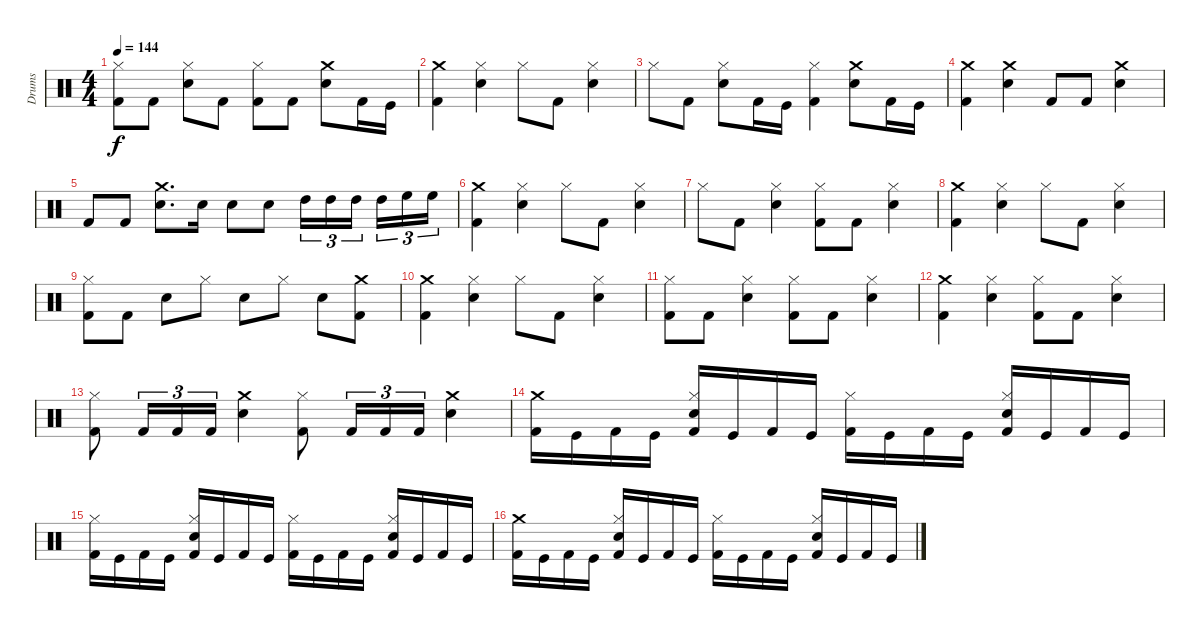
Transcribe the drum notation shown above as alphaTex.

\track ("Drums" "Drums") {instrument percussion}
\staff {score}
\articulation defaults
\ts (4 4)
\tempo 144
\clef neutral
\ks c
("Kick (hit) 2" "Hi-Hat (closed)").8{dy f} "Kick (hit) 2".8 ("Snare (hit) 2" "Hi-Hat (closed)").8 "Kick (hit) 2".8 ("Kick (hit) 2" "Hi-Hat (closed)").8 "Kick (hit) 2".8 ("Crash medium (hit)" "Snare (hit) 2").8 "Kick (hit) 2".16 "Kick (hit)".16 |
("Kick (hit) 2" "Crash medium (hit)").4 ("Snare (hit) 2" "Hi-Hat (closed)").4 "Hi-Hat (closed)".8 "Kick (hit) 2".8 ("Snare (hit) 2" "Hi-Hat (closed)").4 |
"Hi-Hat (closed)".8 "Kick (hit) 2".8 ("Snare (hit) 2" "Hi-Hat (closed)").8 "Kick (hit) 2".16 "Kick (hit)".16 ("Kick (hit) 2" "Hi-Hat (closed)").4 ("Crash medium (hit)" "Snare (hit) 2").8 "Kick (hit) 2".16 "Kick (hit)".16 |
("Kick (hit) 2" "Crash medium (hit)").4 ("Snare (hit) 2" "Crash medium (hit)").4 "Kick (hit) 2".8 "Kick (hit) 2".8 ("Crash medium (hit)" "Snare (hit) 2").4 |
"Kick (hit) 2".8 "Kick (hit) 2".8 ("Crash medium (hit)" "Snare (hit) 2").8{d} "Snare (hit) 2".16 "Snare (hit) 2".8 "Snare (hit) 2".8 "High Tom (hit)".16{tu (3 2)} "High Tom (hit)".16{tu (3 2)} "High Tom (hit)".16{tu (3 2)} "High Tom (hit)".16{tu (3 2)} "High Floor Tom (hit)".16{tu (3 2)} "High Floor Tom (hit)".16{tu (3 2)} |
("Kick (hit) 2" "Crash medium (hit)").4 ("Snare (hit) 2" "Hi-Hat (closed)").4 "Hi-Hat (closed)".8 "Kick (hit) 2".8 ("Snare (hit) 2" "Hi-Hat (closed)").4 |
"Hi-Hat (closed)".8 "Kick (hit) 2".8 ("Snare (hit) 2" "Hi-Hat (closed)").4 ("Kick (hit) 2" "Hi-Hat (closed)").8 "Kick (hit) 2".8 ("Snare (hit) 2" "Hi-Hat (closed)").4 |
("Kick (hit) 2" "Crash medium (hit)").4 ("Snare (hit) 2" "Hi-Hat (closed)").4 "Hi-Hat (closed)".8 "Kick (hit) 2".8 ("Snare (hit) 2" "Hi-Hat (closed)").4 |
("Kick (hit) 2" "Hi-Hat (closed)").8 "Kick (hit) 2".8 "Snare (hit) 2".8 "Hi-Hat (closed)".8 "Snare (hit) 2".8 "Hi-Hat (closed)".8 "Snare (hit) 2".8 ("Kick (hit) 2" "Crash medium (hit)").8 |
("Kick (hit) 2" "Crash medium (hit)").4 ("Snare (hit) 2" "Hi-Hat (closed)").4 "Hi-Hat (closed)".8 "Kick (hit) 2".8 ("Snare (hit) 2" "Hi-Hat (closed)").4 |
("Hi-Hat (closed)" "Kick (hit) 2").8 "Kick (hit) 2".8 ("Snare (hit) 2" "Hi-Hat (closed)").4 ("Hi-Hat (closed)" "Kick (hit) 2").8 "Kick (hit) 2".8 ("Snare (hit) 2" "Hi-Hat (closed)").4 |
("Kick (hit) 2" "Crash medium (hit)").4 ("Snare (hit) 2" "Hi-Hat (closed)").4 ("Hi-Hat (closed)" "Kick (hit) 2").8 "Kick (hit) 2".8 ("Snare (hit) 2" "Hi-Hat (closed)").4 |
("Kick (hit) 2" "Hi-Hat (closed)").8 "Kick (hit) 2".16{tu (3 2)} "Kick (hit) 2".16{tu (3 2)} "Kick (hit) 2".16{tu (3 2)} ("Crash medium (hit)" "Snare (hit) 2").4 ("Kick (hit) 2" "Hi-Hat (closed)").8 "Kick (hit) 2".16{tu (3 2)} "Kick (hit) 2".16{tu (3 2)} "Kick (hit) 2".16{tu (3 2)} ("Snare (hit) 2" "Crash medium (hit)").4 |
("Crash medium (hit)" "Kick (hit) 2").16 "Kick (hit)".16 "Kick (hit) 2".16 "Kick (hit)".16 ("Snare (hit) 2" "Hi-Hat (closed)" "Kick (hit) 2").16 "Kick (hit)".16 "Kick (hit) 2".16 "Kick (hit)".16 ("Hi-Hat (closed)" "Kick (hit) 2").16 "Kick (hit)".16 "Kick (hit) 2".16 "Kick (hit)".16 ("Snare (hit) 2" "Hi-Hat (closed)" "Kick (hit) 2").16 "Kick (hit)".16 "Kick (hit) 2".16 "Kick (hit)".16 |
("Hi-Hat (closed)" "Kick (hit) 2").16 "Kick (hit)".16 "Kick (hit) 2".16 "Kick (hit)".16 ("Snare (hit) 2" "Hi-Hat (closed)" "Kick (hit) 2").16 "Kick (hit)".16 "Kick (hit) 2".16 "Kick (hit)".16 ("Hi-Hat (closed)" "Kick (hit) 2").16 "Kick (hit)".16 "Kick (hit) 2".16 "Kick (hit)".16 ("Snare (hit) 2" "Hi-Hat (closed)" "Kick (hit) 2").16 "Kick (hit)".16 "Kick (hit) 2".16 "Kick (hit)".16 |
("Crash medium (hit)" "Kick (hit) 2").16 "Kick (hit)".16 "Kick (hit) 2".16 "Kick (hit)".16 ("Snare (hit) 2" "Hi-Hat (closed)" "Kick (hit) 2").16 "Kick (hit)".16 "Kick (hit) 2".16 "Kick (hit)".16 ("Hi-Hat (closed)" "Kick (hit) 2").16 "Kick (hit)".16 "Kick (hit) 2".16 "Kick (hit)".16 ("Snare (hit) 2" "Hi-Hat (closed)" "Kick (hit) 2").16 "Kick (hit)".16 "Kick (hit) 2".16 "Kick (hit)".16
